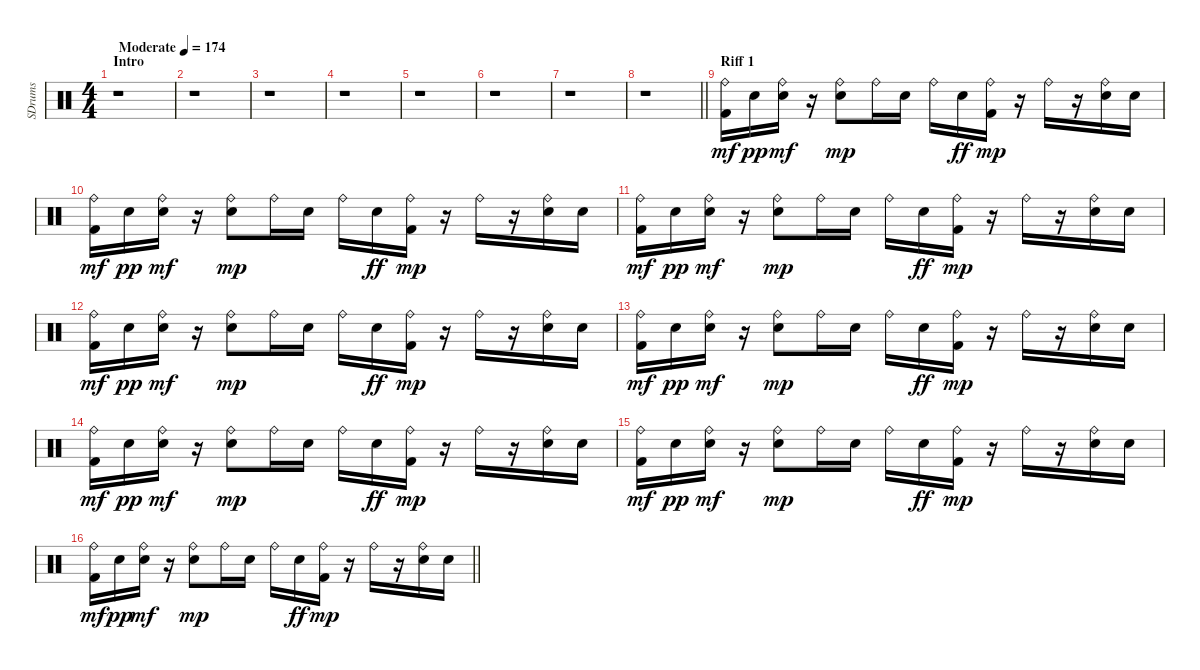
\track ("SDrums" "SDrums") {instrument percussion}
\staff {score}
\articulation defaults
\ts (4 4)
\section ("" "Intro")
\tempo (174 "Moderate")
\clef neutral
\ks c
r.1{dy mf} |
r.1 |
r.1 |
r.1 |
r.1 |
r.1 |
r.1 |
\barLineRight lightlight
r.1 |
\section ("" "Riff 1")
("Kick (hit) 2" "Ride (bell)").16 "Snare (hit) 2".16{dy pp} ("Snare (hit) 2" "Ride (bell)").16{dy mf} r.16 ("Snare (hit) 2" "Ride (bell)").8{dy mp} "Ride (bell)".16 "Snare (hit) 2".16 "Ride (bell)".16 "Snare (hit) 2".16{dy ff} ("Kick (hit) 2" "Ride (bell)").16{dy mp} r.16 "Ride (bell)".16 r.16 ("Snare (hit) 2" "Ride (bell)").16 "Snare (hit) 2".16 |
("Kick (hit) 2" "Ride (bell)").16{dy mf} "Snare (hit) 2".16{dy pp} ("Snare (hit) 2" "Ride (bell)").16{dy mf} r.16 ("Snare (hit) 2" "Ride (bell)").8{dy mp} "Ride (bell)".16 "Snare (hit) 2".16 "Ride (bell)".16 "Snare (hit) 2".16{dy ff} ("Kick (hit) 2" "Ride (bell)").16{dy mp} r.16 "Ride (bell)".16 r.16 ("Snare (hit) 2" "Ride (bell)").16 "Snare (hit) 2".16 |
("Kick (hit) 2" "Ride (bell)").16{dy mf} "Snare (hit) 2".16{dy pp} ("Snare (hit) 2" "Ride (bell)").16{dy mf} r.16 ("Snare (hit) 2" "Ride (bell)").8{dy mp} "Ride (bell)".16 "Snare (hit) 2".16 "Ride (bell)".16 "Snare (hit) 2".16{dy ff} ("Kick (hit) 2" "Ride (bell)").16{dy mp} r.16 "Ride (bell)".16 r.16 ("Snare (hit) 2" "Ride (bell)").16 "Snare (hit) 2".16 |
("Kick (hit) 2" "Ride (bell)").16{dy mf} "Snare (hit) 2".16{dy pp} ("Snare (hit) 2" "Ride (bell)").16{dy mf} r.16 ("Snare (hit) 2" "Ride (bell)").8{dy mp} "Ride (bell)".16 "Snare (hit) 2".16 "Ride (bell)".16 "Snare (hit) 2".16{dy ff} ("Kick (hit) 2" "Ride (bell)").16{dy mp} r.16 "Ride (bell)".16 r.16 ("Snare (hit) 2" "Ride (bell)").16 "Snare (hit) 2".16 |
("Kick (hit) 2" "Ride (bell)").16{dy mf} "Snare (hit) 2".16{dy pp} ("Snare (hit) 2" "Ride (bell)").16{dy mf} r.16 ("Snare (hit) 2" "Ride (bell)").8{dy mp} "Ride (bell)".16 "Snare (hit) 2".16 "Ride (bell)".16 "Snare (hit) 2".16{dy ff} ("Kick (hit) 2" "Ride (bell)").16{dy mp} r.16 "Ride (bell)".16 r.16 ("Snare (hit) 2" "Ride (bell)").16 "Snare (hit) 2".16 |
("Kick (hit) 2" "Ride (bell)").16{dy mf} "Snare (hit) 2".16{dy pp} ("Snare (hit) 2" "Ride (bell)").16{dy mf} r.16 ("Snare (hit) 2" "Ride (bell)").8{dy mp} "Ride (bell)".16 "Snare (hit) 2".16 "Ride (bell)".16 "Snare (hit) 2".16{dy ff} ("Kick (hit) 2" "Ride (bell)").16{dy mp} r.16 "Ride (bell)".16 r.16 ("Snare (hit) 2" "Ride (bell)").16 "Snare (hit) 2".16 |
("Kick (hit) 2" "Ride (bell)").16{dy mf} "Snare (hit) 2".16{dy pp} ("Snare (hit) 2" "Ride (bell)").16{dy mf} r.16 ("Snare (hit) 2" "Ride (bell)").8{dy mp} "Ride (bell)".16 "Snare (hit) 2".16 "Ride (bell)".16 "Snare (hit) 2".16{dy ff} ("Kick (hit) 2" "Ride (bell)").16{dy mp} r.16 "Ride (bell)".16 r.16 ("Snare (hit) 2" "Ride (bell)").16 "Snare (hit) 2".16 |
\barLineRight lightlight
("Kick (hit) 2" "Ride (bell)").16{dy mf} "Snare (hit) 2".16{dy pp} ("Snare (hit) 2" "Ride (bell)").16{dy mf} r.16 ("Snare (hit) 2" "Ride (bell)").8{dy mp} "Ride (bell)".16 "Snare (hit) 2".16 "Ride (bell)".16 "Snare (hit) 2".16{dy ff} ("Kick (hit) 2" "Ride (bell)").16{dy mp} r.16 "Ride (bell)".16 r.16 ("Snare (hit) 2" "Ride (bell)").16 "Snare (hit) 2".16
